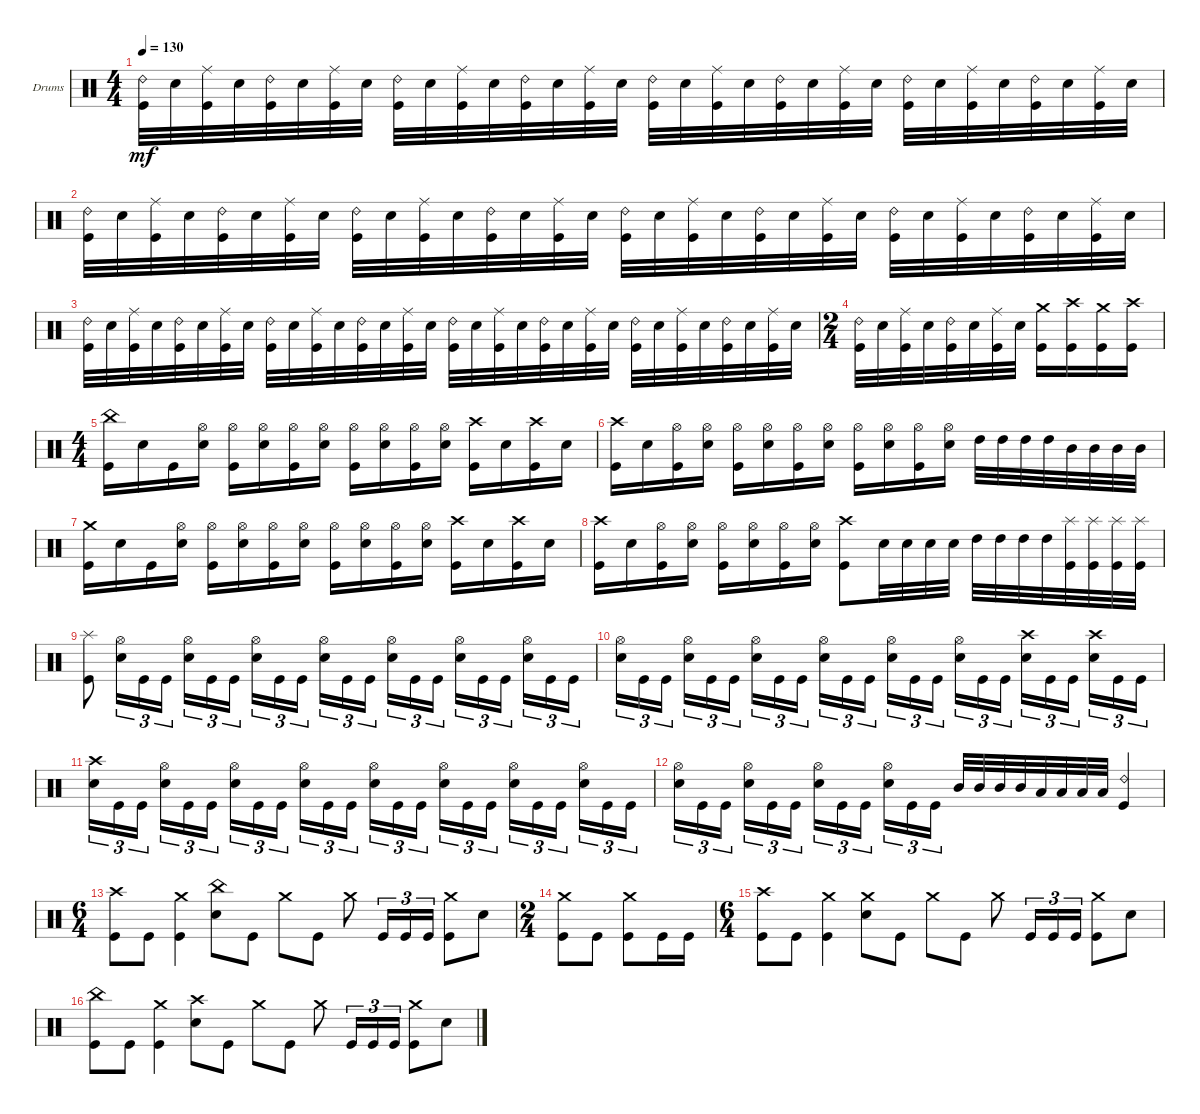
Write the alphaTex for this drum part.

\defaultSystemsLayout 4
\bracketExtendMode groupsimilarinstruments
\firstSystemTrackNameOrientation horizontal
\otherSystemsTrackNameOrientation horizontal
\track ("Drumkit" "Drums") {instrument percussion}
\staff {score}
\articulation defaults
\ts (4 4)
\tempo 130
\clef neutral
\ks c
("Kick (hit)" "Ride (bell) 2").32{dy mf} "Snare (hit) 2".32 ("Kick (hit)" "Ride (middle)").32 "Snare (hit) 2".32 ("Kick (hit)" "Ride (bell) 2").32 "Snare (hit) 2".32 ("Kick (hit)" "Ride (middle)").32 "Snare (hit) 2".32 ("Kick (hit)" "Ride (bell) 2").32 "Snare (hit) 2".32 ("Kick (hit)" "Ride (middle)").32 "Snare (hit) 2".32 ("Kick (hit)" "Ride (bell) 2").32 "Snare (hit) 2".32 ("Kick (hit)" "Ride (middle)").32 "Snare (hit) 2".32 ("Kick (hit)" "Ride (bell) 2").32 "Snare (hit) 2".32 ("Kick (hit)" "Ride (middle)").32 "Snare (hit) 2".32 ("Kick (hit)" "Ride (bell) 2").32 "Snare (hit) 2".32 ("Kick (hit)" "Ride (middle)").32 "Snare (hit) 2".32 ("Kick (hit)" "Ride (bell) 2").32 "Snare (hit) 2".32 ("Kick (hit)" "Ride (middle)").32 "Snare (hit) 2".32 ("Kick (hit)" "Ride (bell) 2").32 "Snare (hit) 2".32 ("Kick (hit)" "Ride (middle)").32 "Snare (hit) 2".32 |
("Kick (hit)" "Ride (bell) 2").32 "Snare (hit) 2".32 ("Kick (hit)" "Ride (middle)").32 "Snare (hit) 2".32 ("Kick (hit)" "Ride (bell) 2").32 "Snare (hit) 2".32 ("Kick (hit)" "Ride (middle)").32 "Snare (hit) 2".32 ("Kick (hit)" "Ride (bell) 2").32 "Snare (hit) 2".32 ("Kick (hit)" "Ride (middle)").32 "Snare (hit) 2".32 ("Kick (hit)" "Ride (bell) 2").32 "Snare (hit) 2".32 ("Kick (hit)" "Ride (middle)").32 "Snare (hit) 2".32 ("Kick (hit)" "Ride (bell) 2").32 "Snare (hit) 2".32 ("Kick (hit)" "Ride (middle)").32 "Snare (hit) 2".32 ("Kick (hit)" "Ride (bell) 2").32 "Snare (hit) 2".32 ("Kick (hit)" "Ride (middle)").32 "Snare (hit) 2".32 ("Kick (hit)" "Ride (bell) 2").32 "Snare (hit) 2".32 ("Kick (hit)" "Ride (middle)").32 "Snare (hit) 2".32 ("Kick (hit)" "Ride (bell) 2").32 "Snare (hit) 2".32 ("Kick (hit)" "Ride (middle)").32 "Snare (hit) 2".32 |
("Kick (hit)" "Ride (bell) 2").32 "Snare (hit) 2".32 ("Kick (hit)" "Ride (middle)").32 "Snare (hit) 2".32 ("Kick (hit)" "Ride (bell) 2").32 "Snare (hit) 2".32 ("Kick (hit)" "Ride (middle)").32 "Snare (hit) 2".32 ("Kick (hit)" "Ride (bell) 2").32 "Snare (hit) 2".32 ("Kick (hit)" "Ride (middle)").32 "Snare (hit) 2".32 ("Kick (hit)" "Ride (bell) 2").32 "Snare (hit) 2".32 ("Kick (hit)" "Ride (middle)").32 "Snare (hit) 2".32 ("Kick (hit)" "Ride (bell) 2").32 "Snare (hit) 2".32 ("Kick (hit)" "Ride (middle)").32 "Snare (hit) 2".32 ("Kick (hit)" "Ride (bell) 2").32 "Snare (hit) 2".32 ("Kick (hit)" "Ride (middle)").32 "Snare (hit) 2".32 ("Kick (hit)" "Ride (bell) 2").32 "Snare (hit) 2".32 ("Kick (hit)" "Ride (middle)").32 "Snare (hit) 2".32 ("Kick (hit)" "Ride (bell) 2").32 "Snare (hit) 2".32 ("Kick (hit)" "Ride (middle)").32 "Snare (hit) 2".32 |
\ts (2 4)
("Kick (hit)" "Ride (bell) 2").32 "Snare (hit) 2".32 ("Kick (hit)" "Ride (middle)").32 "Snare (hit) 2".32 ("Kick (hit)" "Ride (bell) 2").32 "Snare (hit) 2".32 ("Kick (hit)" "Ride (middle)").32 "Snare (hit) 2".32 ("Kick (hit)" "Crash medium (hit)").16 ("Kick (hit)" "Crash high (hit)").16 ("Kick (hit)" "Crash medium (hit)").16 ("Kick (hit)" "Crash high (hit)").16 |
\ts (4 4)
("China (hit)" "Kick (hit)").16 "Snare (hit) 2".16 "Kick (hit)".16 ("Snare (hit) 2" "Hi-Hat (open)").16 ("Hi-Hat (open)" "Kick (hit)").16 ("Hi-Hat (open)" "Snare (hit) 2").16 ("Hi-Hat (open)" "Kick (hit)").16 ("Hi-Hat (open)" "Snare (hit) 2").16 ("Hi-Hat (open)" "Kick (hit)").16 ("Hi-Hat (open)" "Snare (hit) 2").16 ("Hi-Hat (open)" "Kick (hit)").16 ("Hi-Hat (open)" "Snare (hit) 2").16 ("Kick (hit)" "Crash high (hit)").16 "Snare (hit) 2".16 ("Kick (hit)" "Crash high (hit)").16 "Snare (hit) 2".16 |
("Kick (hit)" "Crash high (hit)").16 "Snare (hit) 2".16 ("Hi-Hat (open)" "Kick (hit)").16 ("Hi-Hat (open)" "Snare (hit) 2").16 ("Hi-Hat (open)" "Kick (hit)").16 ("Hi-Hat (open)" "Snare (hit) 2").16 ("Hi-Hat (open)" "Kick (hit)").16 ("Hi-Hat (open)" "Snare (hit) 2").16 ("Hi-Hat (open)" "Kick (hit)").16 ("Hi-Hat (open)" "Snare (hit) 2").16 ("Hi-Hat (open)" "Kick (hit)").16 ("Hi-Hat (open)" "Snare (hit) 2").16 "High Tom (hit)".32 "High Tom (hit)".32 "High Tom (hit)".32 "High Tom (hit)".32 "Mid Tom (hit)".32 "Mid Tom (hit)".32 "Mid Tom (hit)".32 "Mid Tom (hit)".32 |
("Kick (hit)" "Crash medium (hit)").16 "Snare (hit) 2".16 "Kick (hit)".16 ("Snare (hit) 2" "Hi-Hat (open)").16 ("Hi-Hat (open)" "Kick (hit)").16 ("Hi-Hat (open)" "Snare (hit) 2").16 ("Hi-Hat (open)" "Kick (hit)").16 ("Hi-Hat (open)" "Snare (hit) 2").16 ("Hi-Hat (open)" "Kick (hit)").16 ("Hi-Hat (open)" "Snare (hit) 2").16 ("Hi-Hat (open)" "Kick (hit)").16 ("Hi-Hat (open)" "Snare (hit) 2").16 ("Kick (hit)" "Crash high (hit)").16 "Snare (hit) 2".16 ("Kick (hit)" "Crash high (hit)").16 "Snare (hit) 2".16 |
("Kick (hit)" "Crash high (hit)").16 "Snare (hit) 2".16 ("Hi-Hat (open)" "Kick (hit)").16 ("Hi-Hat (open)" "Snare (hit) 2").16 ("Hi-Hat (open)" "Kick (hit)").16 ("Hi-Hat (open)" "Snare (hit) 2").16 ("Hi-Hat (open)" "Kick (hit)").16 ("Hi-Hat (open)" "Snare (hit) 2").16 ("Crash high (hit)" "Kick (hit)").8 "Snare (hit) 2".32 "Snare (hit) 2".32 "Snare (hit) 2".32 "Snare (hit) 2".32 "High Tom (hit)".32 "High Tom (hit)".32 "High Tom (hit)".32 "High Tom (hit)".32 ("Splash (hit)" "Kick (hit)").32 ("Splash (hit)" "Kick (hit)").32 ("Splash (hit)" "Kick (hit)").32 ("Splash (hit)" "Kick (hit)").32 |
("Splash (hit)" "Kick (hit)").8 ("Snare (hit) 2" "Hi-Hat (open)").16{tu (3 2)} "Kick (hit)".16{tu (3 2)} "Kick (hit)".16{tu (3 2)} ("Snare (hit) 2" "Hi-Hat (open)").16{tu (3 2)} "Kick (hit)".16{tu (3 2)} "Kick (hit)".16{tu (3 2)} ("Snare (hit) 2" "Hi-Hat (open)").16{tu (3 2)} "Kick (hit)".16{tu (3 2)} "Kick (hit)".16{tu (3 2)} ("Snare (hit) 2" "Hi-Hat (open)").16{tu (3 2)} "Kick (hit)".16{tu (3 2)} "Kick (hit)".16{tu (3 2)} ("Snare (hit) 2" "Hi-Hat (open)").16{tu (3 2)} "Kick (hit)".16{tu (3 2)} "Kick (hit)".16{tu (3 2)} ("Snare (hit) 2" "Hi-Hat (open)").16{tu (3 2)} "Kick (hit)".16{tu (3 2)} "Kick (hit)".16{tu (3 2)} ("Snare (hit) 2" "Hi-Hat (open)").16{tu (3 2)} "Kick (hit)".16{tu (3 2)} "Kick (hit)".16{tu (3 2)} |
("Snare (hit) 2" "Hi-Hat (open)").16{tu (3 2)} "Kick (hit)".16{tu (3 2)} "Kick (hit)".16{tu (3 2)} ("Snare (hit) 2" "Hi-Hat (open)").16{tu (3 2)} "Kick (hit)".16{tu (3 2)} "Kick (hit)".16{tu (3 2)} ("Snare (hit) 2" "Hi-Hat (open)").16{tu (3 2)} "Kick (hit)".16{tu (3 2)} "Kick (hit)".16{tu (3 2)} ("Snare (hit) 2" "Hi-Hat (open)").16{tu (3 2)} "Kick (hit)".16{tu (3 2)} "Kick (hit)".16{tu (3 2)} ("Snare (hit) 2" "Hi-Hat (open)").16{tu (3 2)} "Kick (hit)".16{tu (3 2)} "Kick (hit)".16{tu (3 2)} ("Snare (hit) 2" "Hi-Hat (open)").16{tu (3 2)} "Kick (hit)".16{tu (3 2)} "Kick (hit)".16{tu (3 2)} ("Snare (hit) 2" "Crash high (hit)").16{tu (3 2)} "Kick (hit)".16{tu (3 2)} "Kick (hit)".16{tu (3 2)} ("Snare (hit) 2" "Crash high (hit)").16{tu (3 2)} "Kick (hit)".16{tu (3 2)} "Kick (hit)".16{tu (3 2)} |
("Snare (hit) 2" "Crash high (hit)").16{tu (3 2)} "Kick (hit)".16{tu (3 2)} "Kick (hit)".16{tu (3 2)} ("Snare (hit) 2" "Hi-Hat (open)").16{tu (3 2)} "Kick (hit)".16{tu (3 2)} "Kick (hit)".16{tu (3 2)} ("Snare (hit) 2" "Hi-Hat (open)").16{tu (3 2)} "Kick (hit)".16{tu (3 2)} "Kick (hit)".16{tu (3 2)} ("Snare (hit) 2" "Hi-Hat (open)").16{tu (3 2)} "Kick (hit)".16{tu (3 2)} "Kick (hit)".16{tu (3 2)} ("Snare (hit) 2" "Hi-Hat (open)").16{tu (3 2)} "Kick (hit)".16{tu (3 2)} "Kick (hit)".16{tu (3 2)} ("Snare (hit) 2" "Hi-Hat (open)").16{tu (3 2)} "Kick (hit)".16{tu (3 2)} "Kick (hit)".16{tu (3 2)} ("Snare (hit) 2" "Hi-Hat (open)").16{tu (3 2)} "Kick (hit)".16{tu (3 2)} "Kick (hit)".16{tu (3 2)} ("Snare (hit) 2" "Hi-Hat (open)").16{tu (3 2)} "Kick (hit)".16{tu (3 2)} "Kick (hit)".16{tu (3 2)} |
("Snare (hit) 2" "Hi-Hat (open)").16{tu (3 2)} "Kick (hit)".16{tu (3 2)} "Kick (hit)".16{tu (3 2)} ("Snare (hit) 2" "Hi-Hat (open)").16{tu (3 2)} "Kick (hit)".16{tu (3 2)} "Kick (hit)".16{tu (3 2)} ("Snare (hit) 2" "Hi-Hat (open)").16{tu (3 2)} "Kick (hit)".16{tu (3 2)} "Kick (hit)".16{tu (3 2)} ("Snare (hit) 2" "Hi-Hat (open)").16{tu (3 2)} "Kick (hit)".16{tu (3 2)} "Kick (hit)".16{tu (3 2)} "Mid Tom (hit)".32 "Mid Tom (hit)".32 "Mid Tom (hit)".32 "Mid Tom (hit)".32 "Low Tom (hit)".32 "Low Tom (hit)".32 "Low Tom (hit)".32 "Low Tom (hit)".32 ("Ride (bell) 2" "Kick (hit)").4 |
\ts (6 4)
("Kick (hit)" "Crash high (hit)").8 "Kick (hit)".8 ("Kick (hit)" "Crash medium (hit)").4 ("Snare (hit) 2" "China (hit)").8 "Kick (hit)".8 "Crash medium (hit)".8 "Kick (hit)".8 "Crash medium (hit)".8 "Kick (hit)".16{tu (3 2)} "Kick (hit)".16{tu (3 2)} "Kick (hit)".16{tu (3 2)} ("Kick (hit)" "Crash medium (hit)").8 "Snare (hit) 2".8 |
\ts (2 4)
("Kick (hit)" "Crash medium (hit)").8 "Kick (hit)".8 ("Kick (hit)" "Crash medium (hit)").8 "Kick (hit)".16 "Kick (hit)".16 |
\ts (6 4)
("Crash high (hit)" "Kick (hit)").8 "Kick (hit)".8 ("Kick (hit)" "Crash medium (hit)").4 ("Crash medium (hit)" "Snare (hit) 2").8 "Kick (hit)".8 "Crash medium (hit)".8 "Kick (hit)".8 "Crash medium (hit)".8 "Kick (hit)".16{tu (3 2)} "Kick (hit)".16{tu (3 2)} "Kick (hit)".16{tu (3 2)} ("Crash medium (hit)" "Kick (hit)").8 "Snare (hit) 2".8 |
("Kick (hit)" "China (hit)").8 "Kick (hit)".8 ("Kick (hit)" "Crash medium (hit)").4 ("Snare (hit) 2" "Crash high (hit)").8 "Kick (hit)".8 "Crash medium (hit)".8 "Kick (hit)".8 "Crash medium (hit)".8 "Kick (hit)".16{tu (3 2)} "Kick (hit)".16{tu (3 2)} "Kick (hit)".16{tu (3 2)} ("Kick (hit)" "Crash medium (hit)").8 "Snare (hit) 2".8
